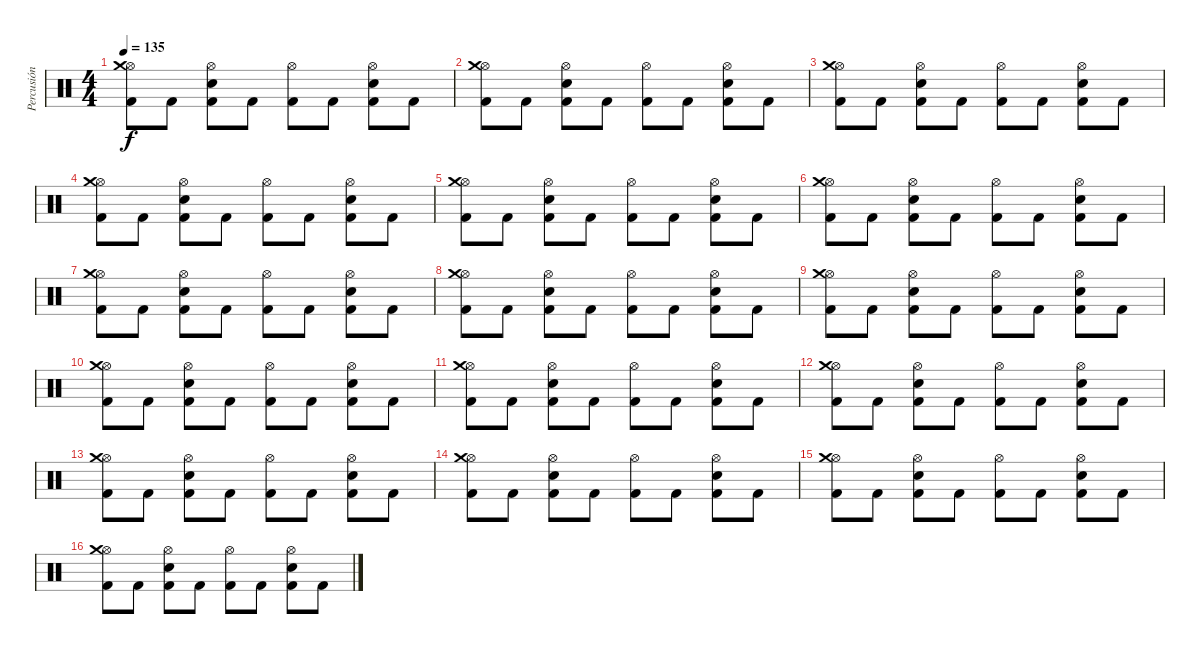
\track ("Percusión" "Percusión") {instrument percussion}
\staff {score}
\articulation defaults
\ts (4 4)
\tempo 135
\clef neutral
\ks c
("Hi-Hat (open)" "Kick (hit) 2" "Crash medium (hit)").8{dy f} "Kick (hit) 2".8 ("Hi-Hat (open)" "Electric Snare (hit)" "Kick (hit) 2").8 "Kick (hit) 2".8 ("Hi-Hat (open)" "Kick (hit) 2").8 "Kick (hit) 2".8 ("Hi-Hat (open)" "Electric Snare (hit)" "Kick (hit) 2").8 "Kick (hit) 2".8 |
("Hi-Hat (open)" "Kick (hit) 2" "Crash medium (hit)").8 "Kick (hit) 2".8 ("Hi-Hat (open)" "Electric Snare (hit)" "Kick (hit) 2").8 "Kick (hit) 2".8 ("Hi-Hat (open)" "Kick (hit) 2").8 "Kick (hit) 2".8 ("Hi-Hat (open)" "Electric Snare (hit)" "Kick (hit) 2").8 "Kick (hit) 2".8 |
("Hi-Hat (open)" "Kick (hit) 2" "Crash medium (hit)").8 "Kick (hit) 2".8 ("Hi-Hat (open)" "Electric Snare (hit)" "Kick (hit) 2").8 "Kick (hit) 2".8 ("Hi-Hat (open)" "Kick (hit) 2").8 "Kick (hit) 2".8 ("Hi-Hat (open)" "Electric Snare (hit)" "Kick (hit) 2").8 "Kick (hit) 2".8 |
("Hi-Hat (open)" "Kick (hit) 2" "Crash medium (hit)").8 "Kick (hit) 2".8 ("Hi-Hat (open)" "Electric Snare (hit)" "Kick (hit) 2").8 "Kick (hit) 2".8 ("Hi-Hat (open)" "Kick (hit) 2").8 "Kick (hit) 2".8 ("Hi-Hat (open)" "Electric Snare (hit)" "Kick (hit) 2").8 "Kick (hit) 2".8 |
("Hi-Hat (open)" "Kick (hit) 2" "Crash medium (hit)").8 "Kick (hit) 2".8 ("Hi-Hat (open)" "Electric Snare (hit)" "Kick (hit) 2").8 "Kick (hit) 2".8 ("Hi-Hat (open)" "Kick (hit) 2").8 "Kick (hit) 2".8 ("Hi-Hat (open)" "Electric Snare (hit)" "Kick (hit) 2").8 "Kick (hit) 2".8 |
("Hi-Hat (open)" "Kick (hit) 2" "Crash medium (hit)").8 "Kick (hit) 2".8 ("Hi-Hat (open)" "Electric Snare (hit)" "Kick (hit) 2").8 "Kick (hit) 2".8 ("Hi-Hat (open)" "Kick (hit) 2").8 "Kick (hit) 2".8 ("Hi-Hat (open)" "Electric Snare (hit)" "Kick (hit) 2").8 "Kick (hit) 2".8 |
("Hi-Hat (open)" "Kick (hit) 2" "Crash medium (hit)").8 "Kick (hit) 2".8 ("Hi-Hat (open)" "Electric Snare (hit)" "Kick (hit) 2").8 "Kick (hit) 2".8 ("Hi-Hat (open)" "Kick (hit) 2").8 "Kick (hit) 2".8 ("Hi-Hat (open)" "Electric Snare (hit)" "Kick (hit) 2").8 "Kick (hit) 2".8 |
("Hi-Hat (open)" "Kick (hit) 2" "Crash medium (hit)").8 "Kick (hit) 2".8 ("Hi-Hat (open)" "Electric Snare (hit)" "Kick (hit) 2").8 "Kick (hit) 2".8 ("Hi-Hat (open)" "Kick (hit) 2").8 "Kick (hit) 2".8 ("Hi-Hat (open)" "Electric Snare (hit)" "Kick (hit) 2").8 "Kick (hit) 2".8 |
("Hi-Hat (open)" "Kick (hit) 2" "Crash medium (hit)").8 "Kick (hit) 2".8 ("Hi-Hat (open)" "Electric Snare (hit)" "Kick (hit) 2").8 "Kick (hit) 2".8 ("Hi-Hat (open)" "Kick (hit) 2").8 "Kick (hit) 2".8 ("Hi-Hat (open)" "Electric Snare (hit)" "Kick (hit) 2").8 "Kick (hit) 2".8 |
("Hi-Hat (open)" "Kick (hit) 2" "Crash medium (hit)").8 "Kick (hit) 2".8 ("Hi-Hat (open)" "Electric Snare (hit)" "Kick (hit) 2").8 "Kick (hit) 2".8 ("Hi-Hat (open)" "Kick (hit) 2").8 "Kick (hit) 2".8 ("Hi-Hat (open)" "Electric Snare (hit)" "Kick (hit) 2").8 "Kick (hit) 2".8 |
("Hi-Hat (open)" "Kick (hit) 2" "Crash medium (hit)").8 "Kick (hit) 2".8 ("Hi-Hat (open)" "Electric Snare (hit)" "Kick (hit) 2").8 "Kick (hit) 2".8 ("Hi-Hat (open)" "Kick (hit) 2").8 "Kick (hit) 2".8 ("Hi-Hat (open)" "Electric Snare (hit)" "Kick (hit) 2").8 "Kick (hit) 2".8 |
("Hi-Hat (open)" "Kick (hit) 2" "Crash medium (hit)").8 "Kick (hit) 2".8 ("Hi-Hat (open)" "Electric Snare (hit)" "Kick (hit) 2").8 "Kick (hit) 2".8 ("Hi-Hat (open)" "Kick (hit) 2").8 "Kick (hit) 2".8 ("Hi-Hat (open)" "Electric Snare (hit)" "Kick (hit) 2").8 "Kick (hit) 2".8 |
("Hi-Hat (open)" "Kick (hit) 2" "Crash medium (hit)").8 "Kick (hit) 2".8 ("Hi-Hat (open)" "Electric Snare (hit)" "Kick (hit) 2").8 "Kick (hit) 2".8 ("Hi-Hat (open)" "Kick (hit) 2").8 "Kick (hit) 2".8 ("Hi-Hat (open)" "Electric Snare (hit)" "Kick (hit) 2").8 "Kick (hit) 2".8 |
("Hi-Hat (open)" "Kick (hit) 2" "Crash medium (hit)").8 "Kick (hit) 2".8 ("Hi-Hat (open)" "Electric Snare (hit)" "Kick (hit) 2").8 "Kick (hit) 2".8 ("Hi-Hat (open)" "Kick (hit) 2").8 "Kick (hit) 2".8 ("Hi-Hat (open)" "Electric Snare (hit)" "Kick (hit) 2").8 "Kick (hit) 2".8 |
("Hi-Hat (open)" "Kick (hit) 2" "Crash medium (hit)").8 "Kick (hit) 2".8 ("Hi-Hat (open)" "Electric Snare (hit)" "Kick (hit) 2").8 "Kick (hit) 2".8 ("Hi-Hat (open)" "Kick (hit) 2").8 "Kick (hit) 2".8 ("Hi-Hat (open)" "Electric Snare (hit)" "Kick (hit) 2").8 "Kick (hit) 2".8 |
("Hi-Hat (open)" "Kick (hit) 2" "Crash medium (hit)").8 "Kick (hit) 2".8 ("Hi-Hat (open)" "Electric Snare (hit)" "Kick (hit) 2").8 "Kick (hit) 2".8 ("Hi-Hat (open)" "Kick (hit) 2").8 "Kick (hit) 2".8 ("Hi-Hat (open)" "Electric Snare (hit)" "Kick (hit) 2").8 "Kick (hit) 2".8
